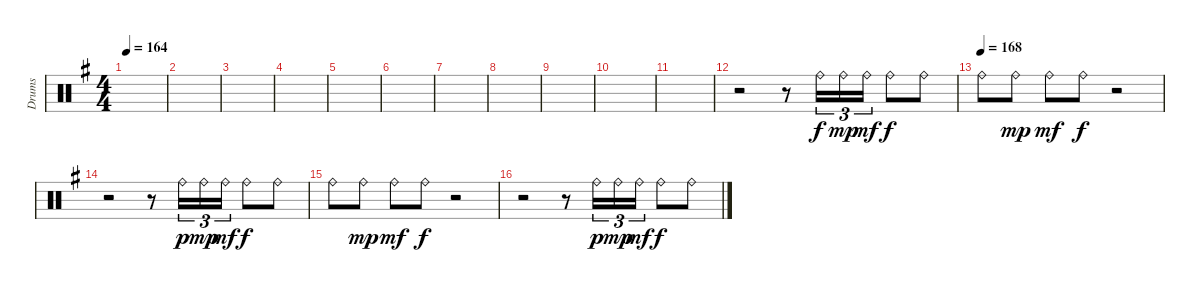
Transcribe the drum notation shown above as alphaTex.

\track ("Drums" "Drums") {instrument percussion}
\staff {score}
\articulation defaults
\ts (4 4)
\tempo 164
\clef neutral
\ks g
|
|
|
|
|
|
|
|
|
|
|
r.2 r.8 "Ride (bell)".16{tu (3 2)} "Ride (bell)".16{tu (3 2) dy mp} "Ride (bell)".16{tu (3 2) dy mf} "Ride (bell)".8{dy f} "Ride (bell)".8 |
\tempo (168)
"Ride (bell)".8 "Ride (bell)".8{dy mp} "Ride (bell)".8{dy mf} "Ride (bell)".8{dy f} r.2 |
r.2 r.8 "Ride (bell)".16{tu (3 2) dy p} "Ride (bell)".16{tu (3 2) dy mp} "Ride (bell)".16{tu (3 2) dy mf} "Ride (bell)".8{dy f} "Ride (bell)".8 |
"Ride (bell)".8 "Ride (bell)".8{dy mp} "Ride (bell)".8{dy mf} "Ride (bell)".8{dy f} r.2 |
r.2 r.8 "Ride (bell)".16{tu (3 2) dy p} "Ride (bell)".16{tu (3 2) dy mp} "Ride (bell)".16{tu (3 2) dy mf} "Ride (bell)".8{dy f} "Ride (bell)".8
